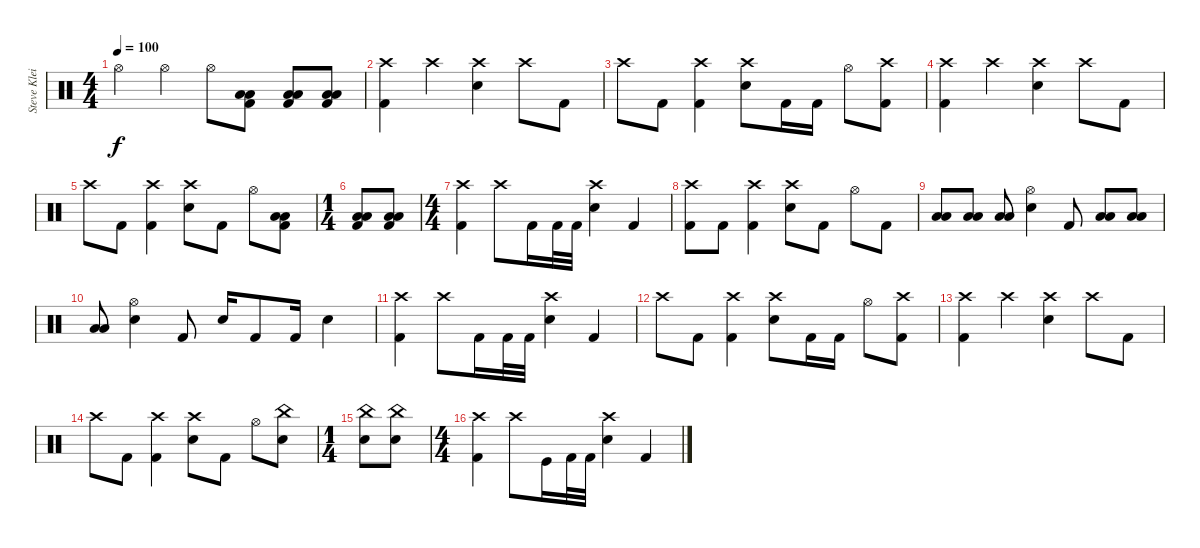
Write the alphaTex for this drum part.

\track ("Steve Kleisath" "Steve Klei") {instrument percussion}
\staff
\articulation defaults
\ts (4 4)
\tempo 100
\clef neutral
\ks c "Hi-Hat (open)".4{dy f} "Hi-Hat (open)".4 "Hi-Hat (open)".8
("Low Floor Tom (hit)" "Low Tom (hit)" "Kick (hit) 2").8 ("Low Floor Tom (hit)" "Low Tom (hit)" "Kick (hit) 2").8 ("Low Floor Tom (hit)" "Low Tom (hit)" "Kick (hit) 2").8 |
("Crash high (hit)" "Kick (hit) 2").4 "Crash high (hit)".4 ("Crash high (hit)" "Electric Snare (hit)").4 "Crash high (hit)".8 "Kick (hit) 2".8 |
"Crash high (hit)".8 "Kick (hit) 2".8 ("Crash high (hit)" "Kick (hit) 2").4 ("Crash high (hit)" "Electric Snare (hit)").8 "Kick (hit) 2".16 "Kick (hit) 2".16 "Hi-Hat (open)".8 ("Crash high (hit)" "Kick (hit) 2").8 |
("Crash high (hit)" "Kick (hit) 2").4 "Crash high (hit)".4 ("Crash high (hit)" "Electric Snare (hit)").4 "Crash high (hit)".8 "Kick (hit) 2".8 |
"Crash high (hit)".8 "Kick (hit) 2".8 ("Crash high (hit)" "Kick (hit) 2").4 ("Crash high (hit)" "Electric Snare (hit)").8 "Kick (hit) 2".8 "Hi-Hat (open)".8 ("Low Tom (hit)" "Low Floor Tom (hit)" "Kick (hit) 2").8 |
\ts (1 4)
("Low Floor Tom (hit)" "Low Tom (hit)" "Kick (hit) 2").8 ("Low Floor Tom (hit)" "Low Tom (hit)" "Kick (hit) 2").8 |
\ts (4 4)
("Crash high (hit)" "Kick (hit) 2").4 "Crash high (hit)".8 "Kick (hit) 2".16 "Kick (hit) 2".32 "Kick (hit) 2".32 ("Crash high (hit)" "Electric Snare (hit)").4 "Kick (hit) 2".4 |
("Crash high (hit)" "Kick (hit) 2").8 "Kick (hit) 2".8 ("Crash high (hit)" "Kick (hit) 2").4 ("Crash high (hit)" "Electric Snare (hit)").8 "Kick (hit) 2".8 "Hi-Hat (open)".8 "Kick (hit) 2".8 |
("Low Tom (hit)" "Low Floor Tom (hit)").8 ("Low Tom (hit)" "Low Floor Tom (hit)").8 ("Low Tom (hit)" "Low Floor Tom (hit)").8 ("Hi-Hat (open)" "Electric Snare (hit)").4 "Kick (hit) 2".8 ("Low Tom (hit)" "Low Floor Tom (hit)").8 ("Low Tom (hit)" "Low Floor Tom (hit)").8 |
("Low Tom (hit)" "Low Floor Tom (hit)").8 ("Hi-Hat (open)" "Electric Snare (hit)").4 "Kick (hit) 2".8 "Electric Snare (hit)".16 "Kick (hit) 2".8 "Kick (hit) 2".16 "Electric Snare (hit)".4 |
("Crash high (hit)" "Kick (hit) 2").4 "Crash high (hit)".8 "Kick (hit) 2".16 "Kick (hit) 2".32 "Kick (hit) 2".32 ("Crash high (hit)" "Electric Snare (hit)").4 "Kick (hit) 2".4 |
"Crash high (hit)".8 "Kick (hit) 2".8 ("Crash high (hit)" "Kick (hit) 2").4 ("Crash high (hit)" "Electric Snare (hit)").8 "Kick (hit) 2".16 "Kick (hit) 2".16 "Hi-Hat (open)".8 ("Crash high (hit)" "Kick (hit) 2").8 |
("Crash high (hit)" "Kick (hit) 2").4 "Crash high (hit)".4 ("Crash high (hit)" "Electric Snare (hit)").4 "Crash high (hit)".8 "Kick (hit) 2".8 |
"Crash high (hit)".8 "Kick (hit) 2".8 ("Crash high (hit)" "Kick (hit) 2").4 ("Crash high (hit)" "Electric Snare (hit)").8 "Kick (hit) 2".8 "Hi-Hat (open)".8 ("China (hit)" "Electric Snare (hit)").8 |
\ts (1 4)
("China (hit)" "Electric Snare (hit)").8 ("China (hit)" "Electric Snare (hit)").8 |
\ts (4 4)
("Crash high (hit)" "Kick (hit) 2").4 "Crash high (hit)".8 "Kick (hit)".16 "Kick (hit) 2".32 "Kick (hit) 2".32 ("Crash high (hit)" "Electric Snare (hit)").4 "Kick (hit) 2".4
